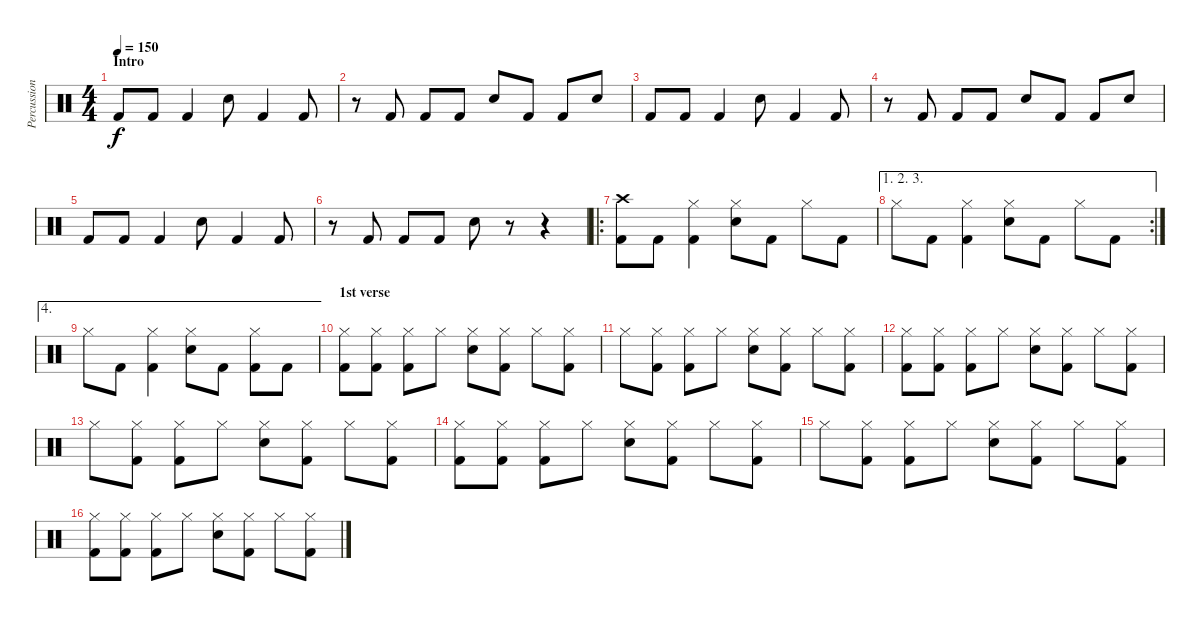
\track ("Percussion" "Percussion") {instrument percussion}
\staff {score}
\articulation defaults
\ts (4 4)
\section ("" "Intro")
\tempo 150
\clef neutral
\ks c "Kick (hit) 2".8{dy f} "Kick (hit) 2".8 "Kick (hit) 2".4 "Electric Snare (hit)".8 "Kick (hit) 2".4 "Kick (hit) 2".8
|
r.8 "Kick (hit) 2".8 "Kick (hit) 2".8 "Kick (hit) 2".8 "Electric Snare (hit)".8 "Kick (hit) 2".8 "Kick (hit) 2".8 "Electric Snare (hit)".8 |
"Kick (hit) 2".8 "Kick (hit) 2".8 "Kick (hit) 2".4 "Electric Snare (hit)".8 "Kick (hit) 2".4 "Kick (hit) 2".8 |
r.8 "Kick (hit) 2".8 "Kick (hit) 2".8 "Kick (hit) 2".8 "Electric Snare (hit)".8 "Kick (hit) 2".8 "Kick (hit) 2".8 "Electric Snare (hit)".8 |
"Kick (hit) 2".8 "Kick (hit) 2".8 "Kick (hit) 2".4 "Electric Snare (hit)".8 "Kick (hit) 2".4 "Kick (hit) 2".8 |
r.8 "Kick (hit) 2".8 "Kick (hit) 2".8 "Kick (hit) 2".8 "Electric Snare (hit)".8 r.8 r.4 |
\ro
("Crash high (hit)" "Kick (hit) 2").8 "Kick (hit) 2".8 ("Hi-Hat (closed)" "Kick (hit) 2").4 ("Hi-Hat (closed)" "Electric Snare (hit)").8 "Kick (hit) 2".8 "Hi-Hat (closed)".8 "Kick (hit) 2".8 |
\ae (1 2 3)
\rc 2 "Hi-Hat (closed)".8 "Kick (hit) 2".8
("Hi-Hat (closed)" "Kick (hit) 2").4 ("Hi-Hat (closed)" "Electric Snare (hit)").8 "Kick (hit) 2".8 "Hi-Hat (closed)".8 "Kick (hit) 2".8 |
\ae 4 "Hi-Hat (closed)".8 "Kick (hit) 2".8
("Hi-Hat (closed)" "Kick (hit) 2").4 ("Hi-Hat (closed)" "Electric Snare (hit)").8 "Kick (hit) 2".8 ("Hi-Hat (closed)" "Kick (hit) 2").8 "Kick (hit) 2".8 |
\section ("" "1st verse")
("Hi-Hat (closed)" "Kick (hit) 2").8 ("Hi-Hat (closed)" "Kick (hit) 2").8 ("Hi-Hat (closed)" "Kick (hit) 2").8 "Hi-Hat (closed)".8 ("Hi-Hat (closed)" "Electric Snare (hit)").8 ("Hi-Hat (closed)" "Kick (hit) 2").8 "Hi-Hat (closed)".8 ("Hi-Hat (closed)" "Kick (hit) 2").8 |
"Hi-Hat (closed)".8 ("Hi-Hat (closed)" "Kick (hit) 2").8 ("Hi-Hat (closed)" "Kick (hit) 2").8 "Hi-Hat (closed)".8 ("Hi-Hat (closed)" "Electric Snare (hit)").8 ("Hi-Hat (closed)" "Kick (hit) 2").8 "Hi-Hat (closed)".8 ("Hi-Hat (closed)" "Kick (hit) 2").8 |
("Hi-Hat (closed)" "Kick (hit) 2").8 ("Hi-Hat (closed)" "Kick (hit) 2").8 ("Hi-Hat (closed)" "Kick (hit) 2").8 "Hi-Hat (closed)".8 ("Hi-Hat (closed)" "Electric Snare (hit)").8 ("Hi-Hat (closed)" "Kick (hit) 2").8 "Hi-Hat (closed)".8 ("Hi-Hat (closed)" "Kick (hit) 2").8 |
"Hi-Hat (closed)".8 ("Hi-Hat (closed)" "Kick (hit) 2").8 ("Hi-Hat (closed)" "Kick (hit) 2").8 "Hi-Hat (closed)".8 ("Hi-Hat (closed)" "Electric Snare (hit)").8 ("Hi-Hat (closed)" "Kick (hit) 2").8 "Hi-Hat (closed)".8 ("Hi-Hat (closed)" "Kick (hit) 2").8 |
("Hi-Hat (closed)" "Kick (hit) 2").8 ("Hi-Hat (closed)" "Kick (hit) 2").8 ("Hi-Hat (closed)" "Kick (hit) 2").8 "Hi-Hat (closed)".8 ("Hi-Hat (closed)" "Electric Snare (hit)").8 ("Hi-Hat (closed)" "Kick (hit) 2").8 "Hi-Hat (closed)".8 ("Hi-Hat (closed)" "Kick (hit) 2").8 |
"Hi-Hat (closed)".8 ("Hi-Hat (closed)" "Kick (hit) 2").8 ("Hi-Hat (closed)" "Kick (hit) 2").8 "Hi-Hat (closed)".8 ("Hi-Hat (closed)" "Electric Snare (hit)").8 ("Hi-Hat (closed)" "Kick (hit) 2").8 "Hi-Hat (closed)".8 ("Hi-Hat (closed)" "Kick (hit) 2").8 |
("Hi-Hat (closed)" "Kick (hit) 2").8 ("Hi-Hat (closed)" "Kick (hit) 2").8 ("Hi-Hat (closed)" "Kick (hit) 2").8 "Hi-Hat (closed)".8 ("Hi-Hat (closed)" "Electric Snare (hit)").8 ("Hi-Hat (closed)" "Kick (hit) 2").8 "Hi-Hat (closed)".8 ("Hi-Hat (closed)" "Kick (hit) 2").8
